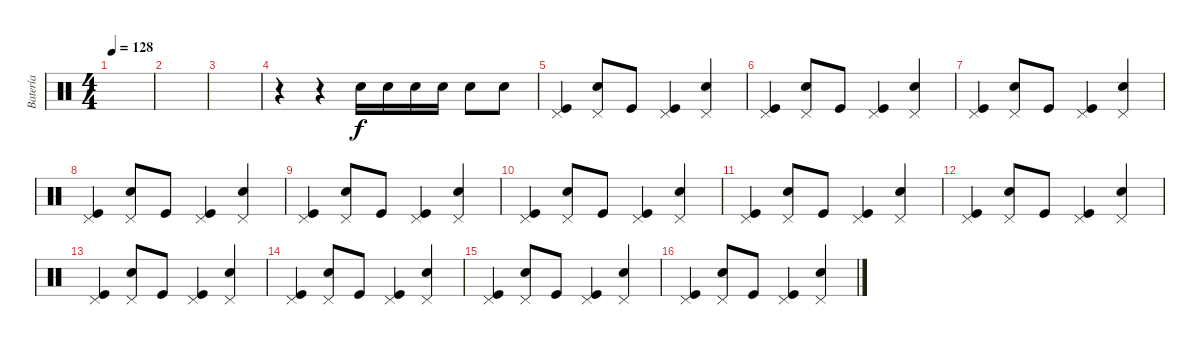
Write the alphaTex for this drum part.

\track ("Batería" "Batería") {instrument percussion}
\staff {score}
\articulation defaults
\ts (4 4)
\tempo 128
\clef neutral
\ks c
|
|
|
r.4 r.4 "Snare (hit) 2".16 "Snare (hit) 2".16 "Snare (hit) 2".16 "Snare (hit) 2".16 "Snare (hit) 2".8 "Snare (hit) 2".8 |
("Pedal Hi-Hat (hit)" "Kick (hit)").4 ("Pedal Hi-Hat (hit)" "Snare (hit) 2").8 "Kick (hit)".8 ("Pedal Hi-Hat (hit)" "Kick (hit)").4 ("Pedal Hi-Hat (hit)" "Snare (hit) 2").4 |
("Pedal Hi-Hat (hit)" "Kick (hit)").4 ("Pedal Hi-Hat (hit)" "Snare (hit) 2").8 "Kick (hit)".8 ("Pedal Hi-Hat (hit)" "Kick (hit)").4 ("Pedal Hi-Hat (hit)" "Snare (hit) 2").4 |
("Pedal Hi-Hat (hit)" "Kick (hit)").4 ("Pedal Hi-Hat (hit)" "Snare (hit) 2").8 "Kick (hit)".8 ("Pedal Hi-Hat (hit)" "Kick (hit)").4 ("Pedal Hi-Hat (hit)" "Snare (hit) 2").4 |
("Pedal Hi-Hat (hit)" "Kick (hit)").4 ("Pedal Hi-Hat (hit)" "Snare (hit) 2").8 "Kick (hit)".8 ("Pedal Hi-Hat (hit)" "Kick (hit)").4 ("Pedal Hi-Hat (hit)" "Snare (hit) 2").4 |
("Pedal Hi-Hat (hit)" "Kick (hit)").4 ("Pedal Hi-Hat (hit)" "Snare (hit) 2").8 "Kick (hit)".8 ("Pedal Hi-Hat (hit)" "Kick (hit)").4 ("Pedal Hi-Hat (hit)" "Snare (hit) 2").4 |
("Pedal Hi-Hat (hit)" "Kick (hit)").4 ("Pedal Hi-Hat (hit)" "Snare (hit) 2").8 "Kick (hit)".8 ("Pedal Hi-Hat (hit)" "Kick (hit)").4 ("Pedal Hi-Hat (hit)" "Snare (hit) 2").4 |
("Pedal Hi-Hat (hit)" "Kick (hit)").4 ("Pedal Hi-Hat (hit)" "Snare (hit) 2").8 "Kick (hit)".8 ("Pedal Hi-Hat (hit)" "Kick (hit)").4 ("Pedal Hi-Hat (hit)" "Snare (hit) 2").4 |
("Pedal Hi-Hat (hit)" "Kick (hit)").4 ("Pedal Hi-Hat (hit)" "Snare (hit) 2").8 "Kick (hit)".8 ("Pedal Hi-Hat (hit)" "Kick (hit)").4 ("Pedal Hi-Hat (hit)" "Snare (hit) 2").4 |
("Pedal Hi-Hat (hit)" "Kick (hit)").4 ("Pedal Hi-Hat (hit)" "Snare (hit) 2").8 "Kick (hit)".8 ("Pedal Hi-Hat (hit)" "Kick (hit)").4 ("Pedal Hi-Hat (hit)" "Snare (hit) 2").4 |
("Pedal Hi-Hat (hit)" "Kick (hit)").4 ("Pedal Hi-Hat (hit)" "Snare (hit) 2").8 "Kick (hit)".8 ("Pedal Hi-Hat (hit)" "Kick (hit)").4 ("Pedal Hi-Hat (hit)" "Snare (hit) 2").4 |
("Pedal Hi-Hat (hit)" "Kick (hit)").4 ("Pedal Hi-Hat (hit)" "Snare (hit) 2").8 "Kick (hit)".8 ("Pedal Hi-Hat (hit)" "Kick (hit)").4 ("Pedal Hi-Hat (hit)" "Snare (hit) 2").4 |
("Pedal Hi-Hat (hit)" "Kick (hit)").4 ("Pedal Hi-Hat (hit)" "Snare (hit) 2").8 "Kick (hit)".8 ("Pedal Hi-Hat (hit)" "Kick (hit)").4 ("Pedal Hi-Hat (hit)" "Snare (hit) 2").4
